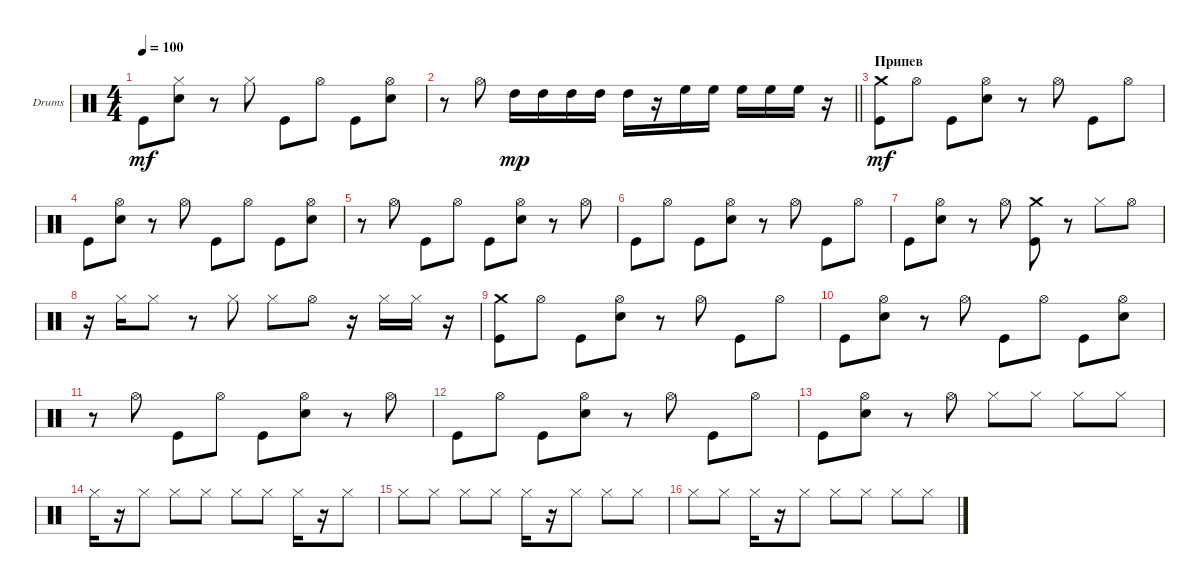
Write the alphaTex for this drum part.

\bracketExtendMode groupsimilarinstruments
\firstSystemTrackNameOrientation horizontal
\otherSystemsTrackNameOrientation horizontal
\track ("Е. Кулаков" "Drums") {instrument percussion}
\staff {score}
\articulation defaults
\ts (4 4)
\tempo 100
\clef neutral
\ks c "Kick (hit)".8{dy mf}
("Snare (hit) 2" "Hi-Hat (closed)").8 r.8 "Hi-Hat (closed)".8 "Kick (hit)".8 "Hi-Hat (open)".8 "Kick (hit)".8 ("Snare (hit) 2" "Hi-Hat (open)").8 |
\barLineRight lightlight
r.8 "Hi-Hat (open)".8 "High Tom (hit)".16{dy mp} "High Tom (hit)".16 "High Tom (hit)".16 "High Tom (hit)".16 "High Tom (hit)".16 r.16 "High Floor Tom (hit)".16 "High Floor Tom (hit)".16 "High Floor Tom (hit)".16 "High Floor Tom (hit)".16 "High Floor Tom (hit)".16 r.16 |
\section ("" "Припев")
("Kick (hit)" "Crash medium (hit)").8{dy mf} "Hi-Hat (open)".8 "Kick (hit)".8 ("Snare (hit) 2" "Hi-Hat (open)").8 r.8 "Hi-Hat (open)".8 "Kick (hit)".8 "Hi-Hat (open)".8 |
"Kick (hit)".8 ("Snare (hit) 2" "Hi-Hat (open)").8 r.8 "Hi-Hat (open)".8 "Kick (hit)".8 "Hi-Hat (open)".8 "Kick (hit)".8 ("Snare (hit) 2" "Hi-Hat (open)").8 |
r.8 "Hi-Hat (open)".8 "Kick (hit)".8 "Hi-Hat (open)".8 "Kick (hit)".8 ("Snare (hit) 2" "Hi-Hat (open)").8 r.8 "Hi-Hat (open)".8 |
"Kick (hit)".8 "Hi-Hat (open)".8 "Kick (hit)".8 ("Snare (hit) 2" "Hi-Hat (open)").8 r.8 "Hi-Hat (open)".8 "Kick (hit)".8 "Hi-Hat (open)".8 |
"Kick (hit)".8 ("Snare (hit) 2" "Hi-Hat (open)").8 r.8 "Hi-Hat (open)".8 ("Kick (hit)" "Crash medium (hit)").8 r.8 "Hi-Hat (closed)".8 "Hi-Hat (open)".8 |
r.16 "Hi-Hat (closed)".16 "Hi-Hat (closed)".8 r.8 "Hi-Hat (closed)".8 "Hi-Hat (closed)".8 "Hi-Hat (open)".8 r.16 "Hi-Hat (closed)".16 "Hi-Hat (closed)".16 r.16 |
("Kick (hit)" "Crash medium (hit)").8 "Hi-Hat (open)".8 "Kick (hit)".8 ("Snare (hit) 2" "Hi-Hat (open)").8 r.8 "Hi-Hat (open)".8 "Kick (hit)".8 "Hi-Hat (open)".8 |
"Kick (hit)".8 ("Snare (hit) 2" "Hi-Hat (open)").8 r.8 "Hi-Hat (open)".8 "Kick (hit)".8 "Hi-Hat (open)".8 "Kick (hit)".8 ("Snare (hit) 2" "Hi-Hat (open)").8 |
r.8 "Hi-Hat (open)".8 "Kick (hit)".8 "Hi-Hat (open)".8 "Kick (hit)".8 ("Snare (hit) 2" "Hi-Hat (open)").8 r.8 "Hi-Hat (open)".8 |
"Kick (hit)".8 "Hi-Hat (open)".8 "Kick (hit)".8 ("Snare (hit) 2" "Hi-Hat (open)").8 r.8 "Hi-Hat (open)".8 "Kick (hit)".8 "Hi-Hat (open)".8 |
"Kick (hit)".8 ("Snare (hit) 2" "Hi-Hat (open)").8 r.8 "Hi-Hat (open)".8 "Hi-Hat (closed)".8 "Hi-Hat (closed)".8 "Hi-Hat (closed)".8 "Hi-Hat (closed)".8 |
"Hi-Hat (closed)".16 r.16 "Hi-Hat (closed)".8 "Hi-Hat (closed)".8 "Hi-Hat (closed)".8 "Hi-Hat (closed)".8 "Hi-Hat (closed)".8 "Hi-Hat (closed)".16 r.16 "Hi-Hat (closed)".8 |
"Hi-Hat (closed)".8 "Hi-Hat (closed)".8 "Hi-Hat (closed)".8 "Hi-Hat (closed)".8 "Hi-Hat (closed)".16 r.16 "Hi-Hat (closed)".8 "Hi-Hat (closed)".8 "Hi-Hat (closed)".8 |
"Hi-Hat (closed)".8 "Hi-Hat (closed)".8 "Hi-Hat (closed)".16 r.16 "Hi-Hat (closed)".8 "Hi-Hat (closed)".8 "Hi-Hat (closed)".8 "Hi-Hat (closed)".8 "Hi-Hat (closed)".8
